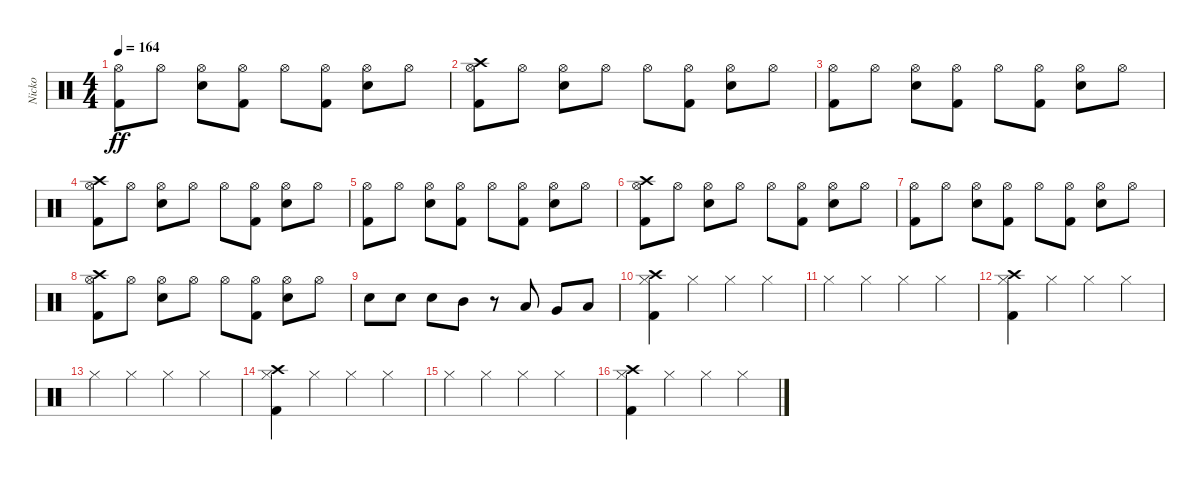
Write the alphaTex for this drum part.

\track ("Nicko" "Nicko") {instrument percussion}
\staff {score}
\articulation defaults
\ts (4 4)
\tempo 164
\clef neutral
\ks c
("Kick (hit) 2" "Hi-Hat (open)").8{dy ff} "Hi-Hat (open)".8 ("Snare (hit) 2" "Hi-Hat (open)").8 ("Kick (hit) 2" "Hi-Hat (open)").8 "Hi-Hat (open)".8 ("Kick (hit) 2" "Hi-Hat (open)").8 ("Snare (hit) 2" "Hi-Hat (open)").8 "Hi-Hat (open)".8 |
("Kick (hit) 2" "Hi-Hat (open)" "Crash high (hit)").8 "Hi-Hat (open)".8 ("Snare (hit) 2" "Hi-Hat (open)").8 "Hi-Hat (open)".8 "Hi-Hat (open)".8 ("Kick (hit) 2" "Hi-Hat (open)").8 ("Snare (hit) 2" "Hi-Hat (open)").8 "Hi-Hat (open)".8 |
("Kick (hit) 2" "Hi-Hat (open)").8 "Hi-Hat (open)".8 ("Snare (hit) 2" "Hi-Hat (open)").8 ("Kick (hit) 2" "Hi-Hat (open)").8 "Hi-Hat (open)".8 ("Kick (hit) 2" "Hi-Hat (open)").8 ("Snare (hit) 2" "Hi-Hat (open)").8 "Hi-Hat (open)".8 |
("Kick (hit) 2" "Hi-Hat (open)" "Crash high (hit)").8 "Hi-Hat (open)".8 ("Snare (hit) 2" "Hi-Hat (open)").8 "Hi-Hat (open)".8 "Hi-Hat (open)".8 ("Kick (hit) 2" "Hi-Hat (open)").8 ("Snare (hit) 2" "Hi-Hat (open)").8 "Hi-Hat (open)".8 |
("Kick (hit) 2" "Hi-Hat (open)").8 "Hi-Hat (open)".8 ("Snare (hit) 2" "Hi-Hat (open)").8 ("Kick (hit) 2" "Hi-Hat (open)").8 "Hi-Hat (open)".8 ("Kick (hit) 2" "Hi-Hat (open)").8 ("Snare (hit) 2" "Hi-Hat (open)").8 "Hi-Hat (open)".8 |
("Kick (hit) 2" "Hi-Hat (open)" "Crash high (hit)").8 "Hi-Hat (open)".8 ("Snare (hit) 2" "Hi-Hat (open)").8 "Hi-Hat (open)".8 "Hi-Hat (open)".8 ("Kick (hit) 2" "Hi-Hat (open)").8 ("Snare (hit) 2" "Hi-Hat (open)").8 "Hi-Hat (open)".8 |
("Kick (hit) 2" "Hi-Hat (open)").8 "Hi-Hat (open)".8 ("Snare (hit) 2" "Hi-Hat (open)").8 ("Kick (hit) 2" "Hi-Hat (open)").8 "Hi-Hat (open)".8 ("Kick (hit) 2" "Hi-Hat (open)").8 ("Snare (hit) 2" "Hi-Hat (open)").8 "Hi-Hat (open)".8 |
("Kick (hit) 2" "Hi-Hat (open)" "Crash high (hit)").8 "Hi-Hat (open)".8 ("Snare (hit) 2" "Hi-Hat (open)").8 "Hi-Hat (open)".8 "Hi-Hat (open)".8 ("Kick (hit) 2" "Hi-Hat (open)").8 ("Snare (hit) 2" "Hi-Hat (open)").8 "Hi-Hat (open)".8 |
"Snare (hit) 2".8 "Snare (hit) 2".8 "Snare (hit) 2".8 "Mid Tom (hit)".8 r.8 "Low Tom (hit)".8 "Very Low Tom (hit)".8 "Low Floor Tom (hit)".8 |
("Kick (hit) 2" "Hi-Hat (closed)" "Crash high (hit)").4 "Hi-Hat (closed)".4 "Hi-Hat (closed)".4 "Hi-Hat (closed)".4 |
"Hi-Hat (closed)".4 "Hi-Hat (closed)".4 "Hi-Hat (closed)".4 "Hi-Hat (closed)".4 |
("Kick (hit) 2" "Hi-Hat (closed)" "Crash high (hit)").4 "Hi-Hat (closed)".4 "Hi-Hat (closed)".4 "Hi-Hat (closed)".4 |
"Hi-Hat (closed)".4 "Hi-Hat (closed)".4 "Hi-Hat (closed)".4 "Hi-Hat (closed)".4 |
("Kick (hit) 2" "Hi-Hat (closed)" "Crash high (hit)").4 "Hi-Hat (closed)".4 "Hi-Hat (closed)".4 "Hi-Hat (closed)".4 |
"Hi-Hat (closed)".4 "Hi-Hat (closed)".4 "Hi-Hat (closed)".4 "Hi-Hat (closed)".4 |
("Kick (hit) 2" "Hi-Hat (closed)" "Crash high (hit)").4 "Hi-Hat (closed)".4 "Hi-Hat (closed)".4 "Hi-Hat (closed)".4
